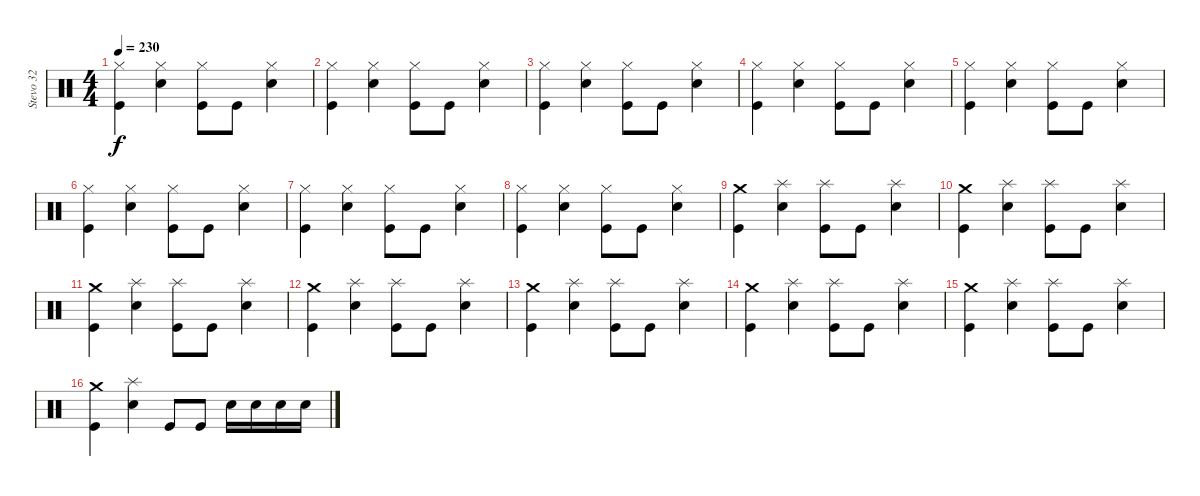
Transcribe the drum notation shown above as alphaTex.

\track ("Stevo 32" "Stevo 32") {instrument percussion}
\staff {score}
\articulation defaults
\ts (4 4)
\tempo 230
\clef neutral
\ks c
("Hi-Hat (closed)" "Kick (hit)").4{dy f} ("Hi-Hat (closed)" "Snare (hit) 2").4 ("Hi-Hat (closed)" "Kick (hit)").8 "Kick (hit)".8 ("Hi-Hat (closed)" "Snare (hit) 2").4 |
("Hi-Hat (closed)" "Kick (hit)").4 ("Hi-Hat (closed)" "Snare (hit) 2").4 ("Hi-Hat (closed)" "Kick (hit)").8 "Kick (hit)".8 ("Hi-Hat (closed)" "Snare (hit) 2").4 |
("Hi-Hat (closed)" "Kick (hit)").4 ("Hi-Hat (closed)" "Snare (hit) 2").4 ("Hi-Hat (closed)" "Kick (hit)").8 "Kick (hit)".8 ("Hi-Hat (closed)" "Snare (hit) 2").4 |
("Hi-Hat (closed)" "Kick (hit)").4 ("Hi-Hat (closed)" "Snare (hit) 2").4 ("Hi-Hat (closed)" "Kick (hit)").8 "Kick (hit)".8 ("Hi-Hat (closed)" "Snare (hit) 2").4 |
("Hi-Hat (closed)" "Kick (hit)").4 ("Hi-Hat (closed)" "Snare (hit) 2").4 ("Hi-Hat (closed)" "Kick (hit)").8 "Kick (hit)".8 ("Hi-Hat (closed)" "Snare (hit) 2").4 |
("Hi-Hat (closed)" "Kick (hit)").4 ("Hi-Hat (closed)" "Snare (hit) 2").4 ("Hi-Hat (closed)" "Kick (hit)").8 "Kick (hit)".8 ("Hi-Hat (closed)" "Snare (hit) 2").4 |
("Hi-Hat (closed)" "Kick (hit)").4 ("Hi-Hat (closed)" "Snare (hit) 2").4 ("Hi-Hat (closed)" "Kick (hit)").8 "Kick (hit)".8 ("Hi-Hat (closed)" "Snare (hit) 2").4 |
("Hi-Hat (closed)" "Kick (hit)").4 ("Hi-Hat (closed)" "Snare (hit) 2").4 ("Hi-Hat (closed)" "Kick (hit)").8 "Kick (hit)".8 ("Hi-Hat (closed)" "Snare (hit) 2").4 |
("Crash medium (hit)" "Kick (hit)").4 ("Splash (hit)" "Snare (hit) 2").4 ("Splash (hit)" "Kick (hit)").8 "Kick (hit)".8 ("Splash (hit)" "Snare (hit) 2").4 |
("Crash medium (hit)" "Kick (hit)").4 ("Splash (hit)" "Snare (hit) 2").4 ("Splash (hit)" "Kick (hit)").8 "Kick (hit)".8 ("Splash (hit)" "Snare (hit) 2").4 |
("Crash medium (hit)" "Kick (hit)").4 ("Splash (hit)" "Snare (hit) 2").4 ("Splash (hit)" "Kick (hit)").8 "Kick (hit)".8 ("Splash (hit)" "Snare (hit) 2").4 |
("Crash medium (hit)" "Kick (hit)").4 ("Splash (hit)" "Snare (hit) 2").4 ("Splash (hit)" "Kick (hit)").8 "Kick (hit)".8 ("Splash (hit)" "Snare (hit) 2").4 |
("Crash medium (hit)" "Kick (hit)").4 ("Splash (hit)" "Snare (hit) 2").4 ("Splash (hit)" "Kick (hit)").8 "Kick (hit)".8 ("Splash (hit)" "Snare (hit) 2").4 |
("Crash medium (hit)" "Kick (hit)").4 ("Splash (hit)" "Snare (hit) 2").4 ("Splash (hit)" "Kick (hit)").8 "Kick (hit)".8 ("Splash (hit)" "Snare (hit) 2").4 |
("Crash medium (hit)" "Kick (hit)").4 ("Splash (hit)" "Snare (hit) 2").4 ("Splash (hit)" "Kick (hit)").8 "Kick (hit)".8 ("Splash (hit)" "Snare (hit) 2").4 |
("Crash medium (hit)" "Kick (hit)").4 ("Splash (hit)" "Snare (hit) 2").4 "Kick (hit)".8 "Kick (hit)".8 "Snare (hit) 2".16 "Snare (hit) 2".16 "Snare (hit) 2".16 "Snare (hit) 2".16
